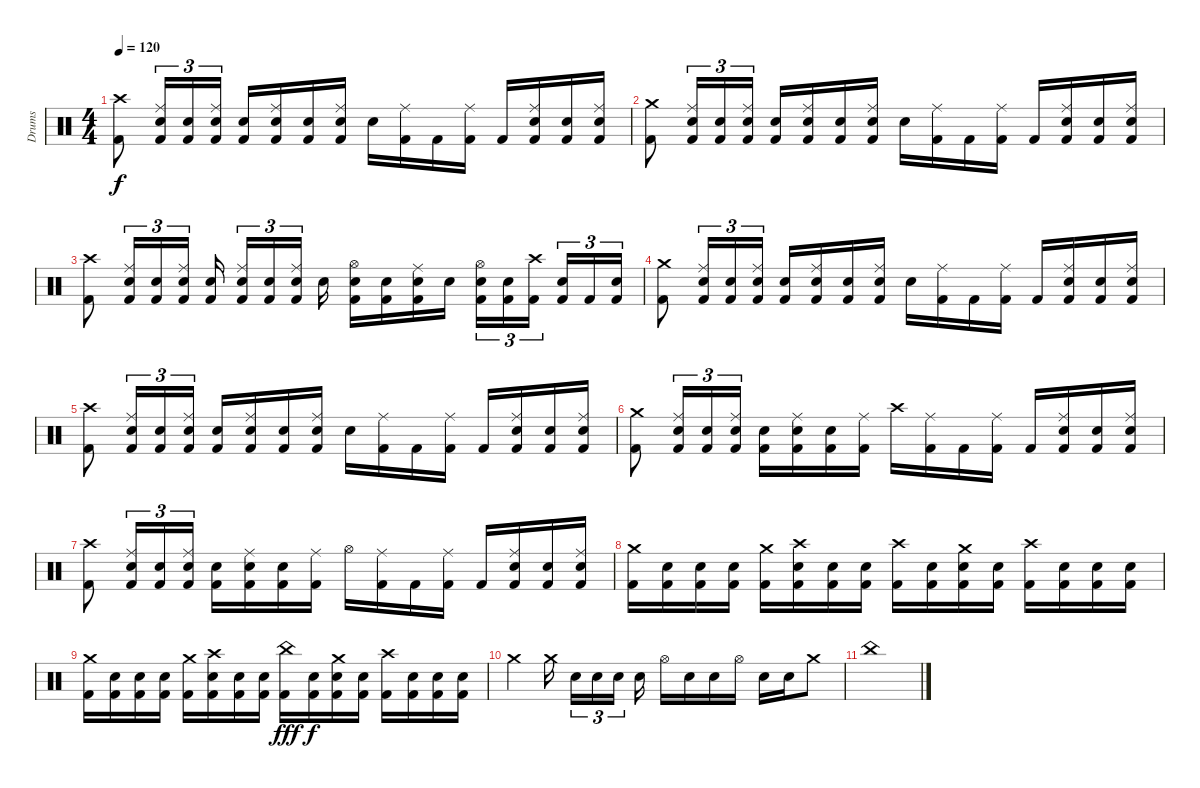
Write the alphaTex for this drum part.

\track ("Drums" "Drums") {instrument percussion}
\staff {score}
\articulation defaults
\ts (4 4)
\tempo 120
\clef neutral
\ks c
("Crash high (hit)" "Kick (hit) 2").8{dy f} ("Ride (middle)" "Electric Snare (hit)" "Kick (hit) 2").16{tu (3 2)} ("Snare (hit) 2" "Kick (hit) 2").16{tu (3 2)} ("Ride (middle)" "Electric Snare (hit)" "Kick (hit) 2").16{tu (3 2)} ("Electric Snare (hit)" "Kick (hit) 2").16 ("Ride (middle)" "Snare (hit) 2" "Kick (hit) 2").16 ("Electric Snare (hit)" "Kick (hit) 2").16 ("Ride (middle)" "Snare (hit) 2" "Kick (hit) 2").16 "Electric Snare (hit)".16 ("Ride (middle)" "Kick (hit) 2").16 "Kick (hit) 2".16 ("Ride (middle)" "Kick (hit) 2").16 "Kick (hit) 2".16 ("Ride (middle)" "Electric Snare (hit)" "Kick (hit) 2").16 ("Electric Snare (hit)" "Kick (hit) 2").16 ("Ride (middle)" "Electric Snare (hit)" "Kick (hit) 2").16 |
("Crash medium (hit)" "Kick (hit) 2").8 ("Ride (middle)" "Electric Snare (hit)" "Kick (hit) 2").16{tu (3 2)} ("Snare (hit) 2" "Kick (hit) 2").16{tu (3 2)} ("Ride (middle)" "Electric Snare (hit)" "Kick (hit) 2").16{tu (3 2)} ("Electric Snare (hit)" "Kick (hit) 2").16 ("Ride (middle)" "Snare (hit) 2" "Kick (hit) 2").16 ("Electric Snare (hit)" "Kick (hit) 2").16 ("Ride (middle)" "Snare (hit) 2" "Kick (hit) 2").16 "Electric Snare (hit)".16 ("Ride (middle)" "Kick (hit) 2").16 "Kick (hit) 2".16 ("Ride (middle)" "Kick (hit) 2").16 "Kick (hit) 2".16 ("Ride (middle)" "Electric Snare (hit)" "Kick (hit) 2").16 ("Electric Snare (hit)" "Kick (hit) 2").16 ("Ride (middle)" "Electric Snare (hit)" "Kick (hit) 2").16 |
("Crash high (hit)" "Kick (hit) 2").8 ("Ride (middle)" "Electric Snare (hit)" "Kick (hit) 2").16{tu (3 2)} ("Snare (hit) 2" "Kick (hit) 2").16{tu (3 2)} ("Ride (middle)" "Electric Snare (hit)" "Kick (hit) 2").16{tu (3 2)} ("Electric Snare (hit)" "Kick (hit) 2").16 ("Ride (middle)" "Snare (hit) 2" "Kick (hit) 2").16{tu (3 2)} ("Electric Snare (hit)" "Kick (hit) 2").16{tu (3 2)} ("Ride (middle)" "Snare (hit) 2" "Kick (hit) 2").16{tu (3 2)} "Electric Snare (hit)".16 ("Hi-Hat (open)" "Snare (hit) 2" "Kick (hit) 2").16 ("Electric Snare (hit)" "Kick (hit) 2").16 ("Ride (middle)" "Snare (hit) 2" "Kick (hit) 2").16 "Electric Snare (hit)".16 ("Hi-Hat (open)" "Snare (hit) 2" "Kick (hit) 2").16{tu (3 2)} ("Electric Snare (hit)" "Kick (hit) 2").16{tu (3 2)} ("Crash high (hit)" "Kick (hit) 2").16{tu (3 2)} ("Electric Snare (hit)" "Kick (hit) 2").16{tu (3 2)} "Kick (hit) 2".16{tu (3 2)} ("Electric Snare (hit)" "Kick (hit) 2").16{tu (3 2)} |
("Crash medium (hit)" "Kick (hit) 2").8 ("Ride (middle)" "Electric Snare (hit)" "Kick (hit) 2").16{tu (3 2)} ("Snare (hit) 2" "Kick (hit) 2").16{tu (3 2)} ("Ride (middle)" "Electric Snare (hit)" "Kick (hit) 2").16{tu (3 2)} ("Electric Snare (hit)" "Kick (hit) 2").16 ("Ride (middle)" "Snare (hit) 2" "Kick (hit) 2").16 ("Electric Snare (hit)" "Kick (hit) 2").16 ("Ride (middle)" "Snare (hit) 2" "Kick (hit) 2").16 "Electric Snare (hit)".16 ("Ride (middle)" "Kick (hit) 2").16 "Kick (hit) 2".16 ("Ride (middle)" "Kick (hit) 2").16 "Kick (hit) 2".16 ("Ride (middle)" "Electric Snare (hit)" "Kick (hit) 2").16 ("Electric Snare (hit)" "Kick (hit) 2").16 ("Ride (middle)" "Electric Snare (hit)" "Kick (hit) 2").16 |
("Crash high (hit)" "Kick (hit) 2").8 ("Ride (middle)" "Electric Snare (hit)" "Kick (hit) 2").16{tu (3 2)} ("Snare (hit) 2" "Kick (hit) 2").16{tu (3 2)} ("Ride (middle)" "Electric Snare (hit)" "Kick (hit) 2").16{tu (3 2)} ("Electric Snare (hit)" "Kick (hit) 2").16 ("Ride (middle)" "Snare (hit) 2" "Kick (hit) 2").16 ("Electric Snare (hit)" "Kick (hit) 2").16 ("Ride (middle)" "Snare (hit) 2" "Kick (hit) 2").16 "Electric Snare (hit)".16 ("Ride (middle)" "Kick (hit) 2").16 "Kick (hit) 2".16 ("Ride (middle)" "Kick (hit) 2").16 "Kick (hit) 2".16 ("Ride (middle)" "Electric Snare (hit)" "Kick (hit) 2").16 ("Electric Snare (hit)" "Kick (hit) 2").16 ("Ride (middle)" "Electric Snare (hit)" "Kick (hit) 2").16 |
("Crash medium (hit)" "Kick (hit) 2").8 ("Ride (middle)" "Electric Snare (hit)" "Kick (hit) 2").16{tu (3 2)} ("Snare (hit) 2" "Kick (hit) 2").16{tu (3 2)} ("Ride (middle)" "Electric Snare (hit)" "Kick (hit) 2").16{tu (3 2)} ("Electric Snare (hit)" "Kick (hit) 2").16 ("Ride (middle)" "Snare (hit) 2" "Kick (hit) 2").16 ("Electric Snare (hit)" "Kick (hit) 2").16 ("Ride (middle)" "Kick (hit) 2").16 "Crash high (hit)".16 ("Ride (middle)" "Kick (hit) 2").16 "Kick (hit) 2".16 ("Ride (middle)" "Kick (hit) 2").16 "Kick (hit) 2".16 ("Ride (middle)" "Electric Snare (hit)" "Kick (hit) 2").16 ("Electric Snare (hit)" "Kick (hit) 2").16 ("Ride (middle)" "Electric Snare (hit)" "Kick (hit) 2").16 |
("Crash high (hit)" "Kick (hit) 2").8 ("Ride (middle)" "Electric Snare (hit)" "Kick (hit) 2").16{tu (3 2)} ("Snare (hit) 2" "Kick (hit) 2").16{tu (3 2)} ("Ride (middle)" "Electric Snare (hit)" "Kick (hit) 2").16{tu (3 2)} ("Electric Snare (hit)" "Kick (hit) 2").16 ("Ride (middle)" "Snare (hit) 2" "Kick (hit) 2").16 ("Electric Snare (hit)" "Kick (hit) 2").16 ("Ride (middle)" "Kick (hit) 2").16 "Hi-Hat (open)".16 ("Ride (middle)" "Kick (hit) 2").16 "Kick (hit) 2".16 ("Ride (middle)" "Kick (hit) 2").16 "Kick (hit) 2".16 ("Ride (middle)" "Electric Snare (hit)" "Kick (hit) 2").16 ("Electric Snare (hit)" "Kick (hit) 2").16 ("Ride (middle)" "Electric Snare (hit)" "Kick (hit) 2").16 |
("Crash medium (hit)" "Kick (hit) 2").16 ("Snare (hit) 2" "Kick (hit) 2").16 ("Electric Snare (hit)" "Kick (hit) 2").16 ("Snare (hit) 2" "Kick (hit) 2").16 ("Crash medium (hit)" "Kick (hit) 2").16 ("Crash high (hit)" "Snare (hit) 2" "Kick (hit) 2").16 ("Electric Snare (hit)" "Kick (hit) 2").16 ("Snare (hit) 2" "Kick (hit) 2").16 ("Crash high (hit)" "Kick (hit) 2").16 ("Snare (hit) 2" "Kick (hit) 2").16 ("Crash medium (hit)" "Electric Snare (hit)" "Kick (hit) 2").16 ("Snare (hit) 2" "Kick (hit) 2").16 ("Crash high (hit)" "Kick (hit) 2").16 ("Snare (hit) 2" "Kick (hit) 2").16 ("Electric Snare (hit)" "Kick (hit) 2").16 ("Snare (hit) 2" "Kick (hit) 2").16 |
("Crash medium (hit)" "Kick (hit) 2").16 ("Snare (hit) 2" "Kick (hit) 2").16 ("Electric Snare (hit)" "Kick (hit) 2").16 ("Snare (hit) 2" "Kick (hit) 2").16 ("Crash medium (hit)" "Kick (hit) 2").16 ("Crash high (hit)" "Snare (hit) 2" "Kick (hit) 2").16 ("Electric Snare (hit)" "Kick (hit) 2").16 ("Snare (hit) 2" "Kick (hit) 2").16 ("China (hit)" "Kick (hit) 2").16{dy fff} ("Snare (hit) 2" "Kick (hit) 2").16{dy f} ("Crash medium (hit)" "Electric Snare (hit)" "Kick (hit) 2").16 ("Snare (hit) 2" "Kick (hit) 2").16 ("Crash high (hit)" "Kick (hit) 2").16 ("Snare (hit) 2" "Kick (hit) 2").16 ("Electric Snare (hit)" "Kick (hit) 2").16 ("Snare (hit) 2" "Kick (hit) 2").16 |
"Crash medium (hit)".4 "Crash medium (hit)".16 "Electric Snare (hit)".16{tu (3 2)} "Electric Snare (hit)".16{tu (3 2)} "Electric Snare (hit)".16{tu (3 2)} "Electric Snare (hit)".16 "Hi-Hat (open)".16 "Electric Snare (hit)".16 "Electric Snare (hit)".16 "Hi-Hat (open)".16 "Electric Snare (hit)".16 "Electric Snare (hit)".16 "Crash medium (hit)".8 |
"China (hit)".1
